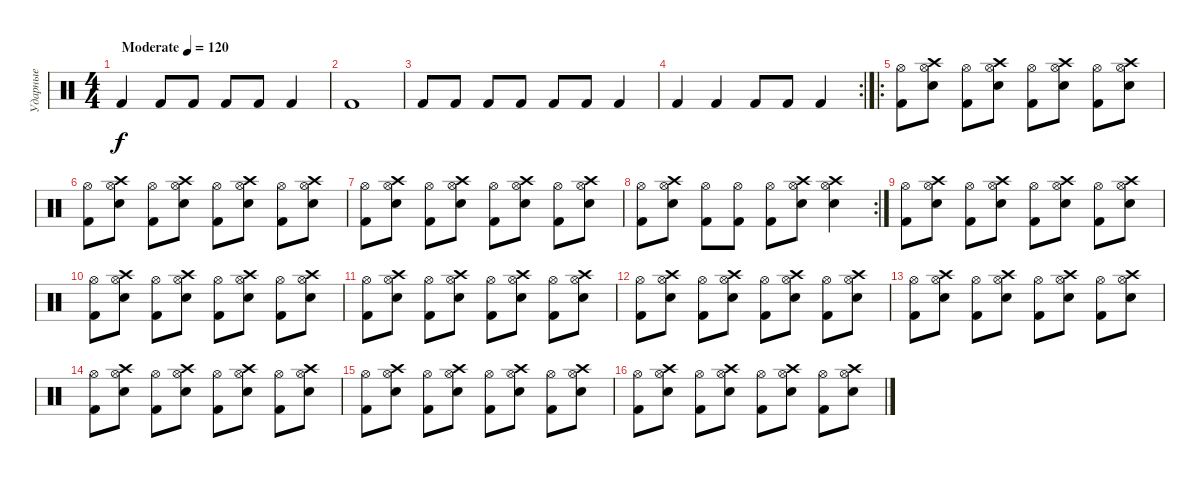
\track ("Ударные" "Ударные") {instrument percussion}
\staff {score}
\articulation defaults
\ts (4 4)
\tempo (120 "Moderate")
\clef neutral
\ks c "Kick (hit) 2".4{dy f} "Kick (hit) 2".8 "Kick (hit) 2".8 "Kick (hit) 2".8 "Kick (hit) 2".8 "Kick (hit) 2".4
|
"Kick (hit) 2".1 |
"Kick (hit) 2".8 "Kick (hit) 2".8 "Kick (hit) 2".8 "Kick (hit) 2".8 "Kick (hit) 2".8 "Kick (hit) 2".8 "Kick (hit) 2".4 |
\rc 2 "Kick (hit) 2".4 "Kick (hit) 2".4 "Kick (hit) 2".8 "Kick (hit) 2".8 "Kick (hit) 2".4
|
\ro
("Hi-Hat (open)" "Kick (hit) 2").8 ("Hi-Hat (open)" "Crash high (hit)" "Snare (hit) 2").8 ("Hi-Hat (open)" "Kick (hit) 2").8 ("Hi-Hat (open)" "Crash high (hit)" "Snare (hit) 2").8 ("Hi-Hat (open)" "Kick (hit) 2").8 ("Hi-Hat (open)" "Crash high (hit)" "Snare (hit) 2").8 ("Hi-Hat (open)" "Kick (hit) 2").8 ("Hi-Hat (open)" "Crash high (hit)" "Snare (hit) 2").8 |
("Hi-Hat (open)" "Kick (hit) 2").8 ("Hi-Hat (open)" "Crash high (hit)" "Snare (hit) 2").8 ("Hi-Hat (open)" "Kick (hit) 2").8 ("Hi-Hat (open)" "Crash high (hit)" "Snare (hit) 2").8 ("Hi-Hat (open)" "Kick (hit) 2").8 ("Hi-Hat (open)" "Crash high (hit)" "Snare (hit) 2").8 ("Hi-Hat (open)" "Kick (hit) 2").8 ("Hi-Hat (open)" "Crash high (hit)" "Snare (hit) 2").8 |
("Hi-Hat (open)" "Kick (hit) 2").8 ("Hi-Hat (open)" "Crash high (hit)" "Snare (hit) 2").8 ("Hi-Hat (open)" "Kick (hit) 2").8 ("Hi-Hat (open)" "Crash high (hit)" "Snare (hit) 2").8 ("Hi-Hat (open)" "Kick (hit) 2").8 ("Hi-Hat (open)" "Crash high (hit)" "Snare (hit) 2").8 ("Hi-Hat (open)" "Kick (hit) 2").8 ("Hi-Hat (open)" "Crash high (hit)" "Snare (hit) 2").8 |
\rc 2
("Hi-Hat (open)" "Kick (hit) 2").8 ("Hi-Hat (open)" "Crash high (hit)" "Snare (hit) 2").8 ("Hi-Hat (open)" "Kick (hit) 2").8 ("Hi-Hat (open)" "Kick (hit) 2").8 ("Hi-Hat (open)" "Kick (hit) 2").8 ("Hi-Hat (open)" "Crash high (hit)" "Snare (hit) 2").8 ("Hi-Hat (open)" "Crash high (hit)" "Snare (hit) 2").4 |
("Hi-Hat (open)" "Kick (hit) 2").8 ("Hi-Hat (open)" "Crash high (hit)" "Snare (hit) 2").8 ("Hi-Hat (open)" "Kick (hit) 2").8 ("Hi-Hat (open)" "Crash high (hit)" "Snare (hit) 2").8 ("Hi-Hat (open)" "Kick (hit) 2").8 ("Hi-Hat (open)" "Crash high (hit)" "Snare (hit) 2").8 ("Hi-Hat (open)" "Kick (hit) 2").8 ("Hi-Hat (open)" "Crash high (hit)" "Snare (hit) 2").8 |
("Hi-Hat (open)" "Kick (hit) 2").8 ("Hi-Hat (open)" "Crash high (hit)" "Snare (hit) 2").8 ("Hi-Hat (open)" "Kick (hit) 2").8 ("Hi-Hat (open)" "Crash high (hit)" "Snare (hit) 2").8 ("Hi-Hat (open)" "Kick (hit) 2").8 ("Hi-Hat (open)" "Crash high (hit)" "Snare (hit) 2").8 ("Hi-Hat (open)" "Kick (hit) 2").8 ("Hi-Hat (open)" "Crash high (hit)" "Snare (hit) 2").8 |
("Hi-Hat (open)" "Kick (hit) 2").8 ("Hi-Hat (open)" "Crash high (hit)" "Snare (hit) 2").8 ("Hi-Hat (open)" "Kick (hit) 2").8 ("Hi-Hat (open)" "Crash high (hit)" "Snare (hit) 2").8 ("Hi-Hat (open)" "Kick (hit) 2").8 ("Hi-Hat (open)" "Crash high (hit)" "Snare (hit) 2").8 ("Hi-Hat (open)" "Kick (hit) 2").8 ("Hi-Hat (open)" "Crash high (hit)" "Snare (hit) 2").8 |
("Hi-Hat (open)" "Kick (hit) 2").8 ("Hi-Hat (open)" "Crash high (hit)" "Snare (hit) 2").8 ("Hi-Hat (open)" "Kick (hit) 2").8 ("Hi-Hat (open)" "Crash high (hit)" "Snare (hit) 2").8 ("Hi-Hat (open)" "Kick (hit) 2").8 ("Hi-Hat (open)" "Crash high (hit)" "Snare (hit) 2").8 ("Hi-Hat (open)" "Kick (hit) 2").8 ("Hi-Hat (open)" "Crash high (hit)" "Snare (hit) 2").8 |
("Hi-Hat (open)" "Kick (hit) 2").8 ("Hi-Hat (open)" "Crash high (hit)" "Snare (hit) 2").8 ("Hi-Hat (open)" "Kick (hit) 2").8 ("Hi-Hat (open)" "Crash high (hit)" "Snare (hit) 2").8 ("Hi-Hat (open)" "Kick (hit) 2").8 ("Hi-Hat (open)" "Crash high (hit)" "Snare (hit) 2").8 ("Hi-Hat (open)" "Kick (hit) 2").8 ("Hi-Hat (open)" "Crash high (hit)" "Snare (hit) 2").8 |
("Hi-Hat (open)" "Kick (hit) 2").8 ("Hi-Hat (open)" "Crash high (hit)" "Snare (hit) 2").8 ("Hi-Hat (open)" "Kick (hit) 2").8 ("Hi-Hat (open)" "Crash high (hit)" "Snare (hit) 2").8 ("Hi-Hat (open)" "Kick (hit) 2").8 ("Hi-Hat (open)" "Crash high (hit)" "Snare (hit) 2").8 ("Hi-Hat (open)" "Kick (hit) 2").8 ("Hi-Hat (open)" "Crash high (hit)" "Snare (hit) 2").8 |
("Hi-Hat (open)" "Kick (hit) 2").8 ("Hi-Hat (open)" "Crash high (hit)" "Snare (hit) 2").8 ("Hi-Hat (open)" "Kick (hit) 2").8 ("Hi-Hat (open)" "Crash high (hit)" "Snare (hit) 2").8 ("Hi-Hat (open)" "Kick (hit) 2").8 ("Hi-Hat (open)" "Crash high (hit)" "Snare (hit) 2").8 ("Hi-Hat (open)" "Kick (hit) 2").8 ("Hi-Hat (open)" "Crash high (hit)" "Snare (hit) 2").8 |
("Hi-Hat (open)" "Kick (hit) 2").8 ("Hi-Hat (open)" "Crash high (hit)" "Snare (hit) 2").8 ("Hi-Hat (open)" "Kick (hit) 2").8 ("Hi-Hat (open)" "Crash high (hit)" "Snare (hit) 2").8 ("Hi-Hat (open)" "Kick (hit) 2").8 ("Hi-Hat (open)" "Crash high (hit)" "Snare (hit) 2").8 ("Hi-Hat (open)" "Kick (hit) 2").8 ("Hi-Hat (open)" "Crash high (hit)" "Snare (hit) 2").8
